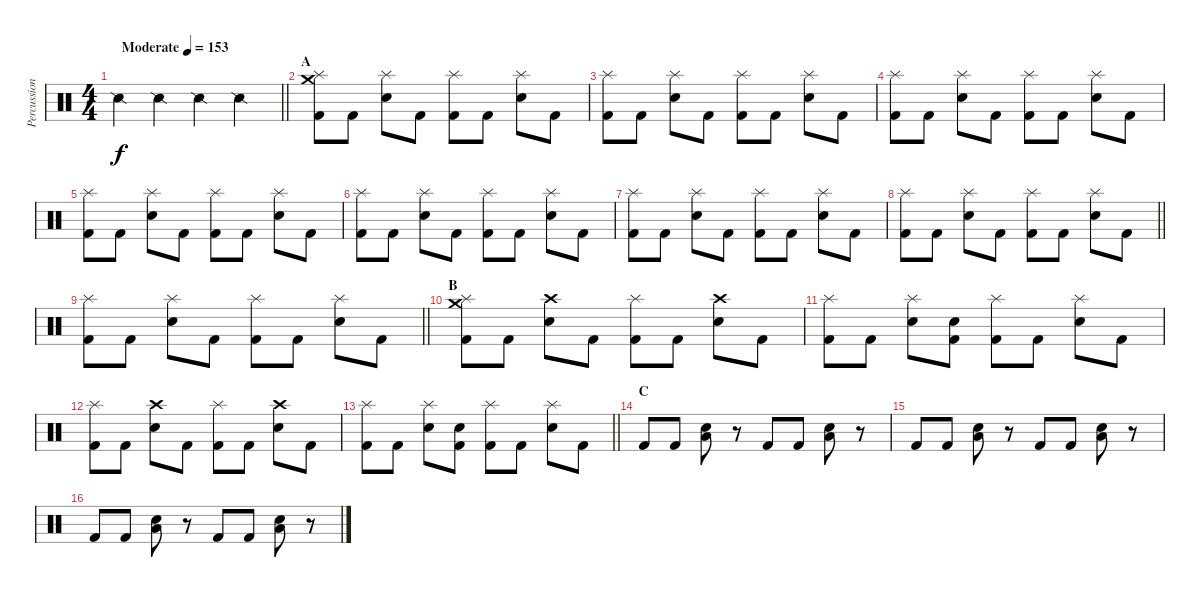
\track ("Percussion" "Percussion") {instrument percussion}
\staff {score}
\articulation defaults
\ts (4 4)
\tempo (153 "Moderate")
\clef neutral
\barLineRight lightlight
\ks c "Snare (side stick) 2".4{dy f} "Snare (side stick) 2".4 "Snare (side stick) 2".4 "Snare (side stick) 2".4
|
\section ("" "A")
("Splash (hit)" "Crash medium (hit)" "Kick (hit) 2").8 "Kick (hit) 2".8 ("Splash (hit)" "Electric Snare (hit)").8 "Kick (hit) 2".8 ("Splash (hit)" "Kick (hit) 2").8 "Kick (hit) 2".8 ("Splash (hit)" "Electric Snare (hit)").8 "Kick (hit) 2".8 |
("Splash (hit)" "Kick (hit) 2").8 "Kick (hit) 2".8 ("Splash (hit)" "Electric Snare (hit)").8 "Kick (hit) 2".8 ("Splash (hit)" "Kick (hit) 2").8 "Kick (hit) 2".8 ("Splash (hit)" "Electric Snare (hit)").8 "Kick (hit) 2".8 |
("Splash (hit)" "Kick (hit) 2").8 "Kick (hit) 2".8 ("Splash (hit)" "Electric Snare (hit)").8 "Kick (hit) 2".8 ("Splash (hit)" "Kick (hit) 2").8 "Kick (hit) 2".8 ("Splash (hit)" "Electric Snare (hit)").8 "Kick (hit) 2".8 |
("Splash (hit)" "Kick (hit) 2").8 "Kick (hit) 2".8 ("Splash (hit)" "Electric Snare (hit)").8 "Kick (hit) 2".8 ("Splash (hit)" "Kick (hit) 2").8 "Kick (hit) 2".8 ("Splash (hit)" "Electric Snare (hit)").8 "Kick (hit) 2".8 |
("Splash (hit)" "Kick (hit) 2").8 "Kick (hit) 2".8 ("Splash (hit)" "Electric Snare (hit)").8 "Kick (hit) 2".8 ("Splash (hit)" "Kick (hit) 2").8 "Kick (hit) 2".8 ("Splash (hit)" "Electric Snare (hit)").8 "Kick (hit) 2".8 |
("Splash (hit)" "Kick (hit) 2").8 "Kick (hit) 2".8 ("Splash (hit)" "Electric Snare (hit)").8 "Kick (hit) 2".8 ("Splash (hit)" "Kick (hit) 2").8 "Kick (hit) 2".8 ("Splash (hit)" "Electric Snare (hit)").8 "Kick (hit) 2".8 |
\barLineRight lightlight
("Splash (hit)" "Kick (hit) 2").8 "Kick (hit) 2".8 ("Splash (hit)" "Electric Snare (hit)").8 "Kick (hit) 2".8 ("Splash (hit)" "Kick (hit) 2").8 "Kick (hit) 2".8 ("Splash (hit)" "Electric Snare (hit)").8 "Kick (hit) 2".8 |
\section ("" "")
\barLineRight lightlight
("Splash (hit)" "Kick (hit) 2").8 "Kick (hit) 2".8 ("Splash (hit)" "Electric Snare (hit)").8 "Kick (hit) 2".8 ("Splash (hit)" "Kick (hit) 2").8 "Kick (hit) 2".8 ("Splash (hit)" "Electric Snare (hit)").8 "Kick (hit) 2".8 |
\section ("" "B")
("Splash (hit)" "Crash medium (hit)" "Kick (hit) 2").8 "Kick (hit) 2".8 ("Crash high (hit)" "Electric Snare (hit)").8 "Kick (hit) 2".8 ("Splash (hit)" "Kick (hit) 2").8 "Kick (hit) 2".8 ("Crash high (hit)" "Electric Snare (hit)").8 "Kick (hit) 2".8 |
("Splash (hit)" "Kick (hit) 2").8 "Kick (hit) 2".8 ("Splash (hit)" "Electric Snare (hit)").8 ("Electric Snare (hit)" "Kick (hit) 2").8 ("Splash (hit)" "Kick (hit) 2").8 "Kick (hit) 2".8 ("Splash (hit)" "Electric Snare (hit)").8 "Kick (hit) 2".8 |
("Splash (hit)" "Kick (hit) 2").8 "Kick (hit) 2".8 ("Crash high (hit)" "Electric Snare (hit)").8 "Kick (hit) 2".8 ("Splash (hit)" "Kick (hit) 2").8 "Kick (hit) 2".8 ("Crash high (hit)" "Electric Snare (hit)").8 "Kick (hit) 2".8 |
\barLineRight lightlight
("Splash (hit)" "Kick (hit) 2").8 "Kick (hit) 2".8 ("Splash (hit)" "Electric Snare (hit)").8 ("Electric Snare (hit)" "Kick (hit) 2").8 ("Splash (hit)" "Kick (hit) 2").8 "Kick (hit) 2".8 ("Splash (hit)" "Electric Snare (hit)").8 "Kick (hit) 2".8 |
\section ("" "C")
"Kick (hit) 2".8 "Kick (hit) 2".8 ("Low Floor Tom (hit)" "Electric Snare (hit)").8 r.8 "Kick (hit) 2".8 "Kick (hit) 2".8 ("Low Floor Tom (hit)" "Electric Snare (hit)").8 r.8 |
"Kick (hit) 2".8 "Kick (hit) 2".8 ("Low Floor Tom (hit)" "Electric Snare (hit)").8 r.8 "Kick (hit) 2".8 "Kick (hit) 2".8 ("Low Floor Tom (hit)" "Electric Snare (hit)").8 r.8 |
"Kick (hit) 2".8 "Kick (hit) 2".8 ("Low Floor Tom (hit)" "Electric Snare (hit)").8 r.8 "Kick (hit) 2".8 "Kick (hit) 2".8 ("Low Floor Tom (hit)" "Electric Snare (hit)").8 r.8
